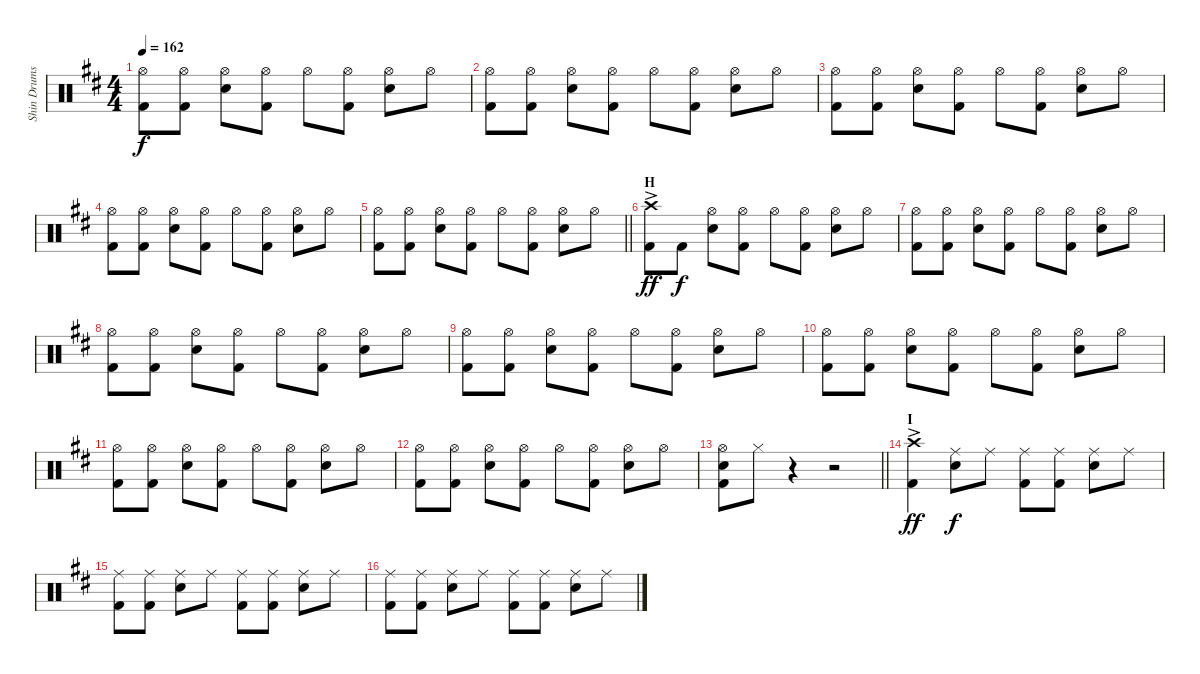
\track ("Shin Drums" "Shin Drums") {instrument percussion}
\staff {score}
\articulation defaults
\ts (4 4)
\tempo 162
\clef neutral
\ks d
("Hi-Hat (open)" "Kick (hit) 2").8{dy f} ("Hi-Hat (open)" "Kick (hit) 2").8 ("Hi-Hat (open)" "Snare (hit) 2").8 ("Hi-Hat (open)" "Kick (hit) 2").8 "Hi-Hat (open)".8 ("Hi-Hat (open)" "Kick (hit) 2").8 ("Hi-Hat (open)" "Snare (hit) 2").8 "Hi-Hat (open)".8 |
("Hi-Hat (open)" "Kick (hit) 2").8 ("Hi-Hat (open)" "Kick (hit) 2").8 ("Hi-Hat (open)" "Snare (hit) 2").8 ("Hi-Hat (open)" "Kick (hit) 2").8 "Hi-Hat (open)".8 ("Hi-Hat (open)" "Kick (hit) 2").8 ("Hi-Hat (open)" "Snare (hit) 2").8 "Hi-Hat (open)".8 |
("Hi-Hat (open)" "Kick (hit) 2").8 ("Hi-Hat (open)" "Kick (hit) 2").8 ("Hi-Hat (open)" "Snare (hit) 2").8 ("Hi-Hat (open)" "Kick (hit) 2").8 "Hi-Hat (open)".8 ("Hi-Hat (open)" "Kick (hit) 2").8 ("Hi-Hat (open)" "Snare (hit) 2").8 "Hi-Hat (open)".8 |
("Hi-Hat (open)" "Kick (hit) 2").8 ("Hi-Hat (open)" "Kick (hit) 2").8 ("Hi-Hat (open)" "Snare (hit) 2").8 ("Hi-Hat (open)" "Kick (hit) 2").8 "Hi-Hat (open)".8 ("Hi-Hat (open)" "Kick (hit) 2").8 ("Hi-Hat (open)" "Snare (hit) 2").8 "Hi-Hat (open)".8 |
\barLineRight lightlight
("Hi-Hat (open)" "Kick (hit) 2").8 ("Hi-Hat (open)" "Kick (hit) 2").8 ("Hi-Hat (open)" "Snare (hit) 2").8 ("Hi-Hat (open)" "Kick (hit) 2").8 "Hi-Hat (open)".8 ("Hi-Hat (open)" "Kick (hit) 2").8 ("Hi-Hat (open)" "Snare (hit) 2").8 "Hi-Hat (open)".8 |
\section ("" "H")
("Crash high (hit)"{ac} "Kick (hit) 2").8{dy ff} "Kick (hit) 2".8{dy f} ("Hi-Hat (open)" "Snare (hit) 2").8 ("Hi-Hat (open)" "Kick (hit) 2").8 "Hi-Hat (open)".8 ("Hi-Hat (open)" "Kick (hit) 2").8 ("Hi-Hat (open)" "Snare (hit) 2").8 "Hi-Hat (open)".8 |
("Hi-Hat (open)" "Kick (hit) 2").8 ("Hi-Hat (open)" "Kick (hit) 2").8 ("Hi-Hat (open)" "Snare (hit) 2").8 ("Hi-Hat (open)" "Kick (hit) 2").8 "Hi-Hat (open)".8 ("Hi-Hat (open)" "Kick (hit) 2").8 ("Hi-Hat (open)" "Snare (hit) 2").8 "Hi-Hat (open)".8 |
("Hi-Hat (open)" "Kick (hit) 2").8 ("Hi-Hat (open)" "Kick (hit) 2").8 ("Hi-Hat (open)" "Snare (hit) 2").8 ("Hi-Hat (open)" "Kick (hit) 2").8 "Hi-Hat (open)".8 ("Hi-Hat (open)" "Kick (hit) 2").8 ("Hi-Hat (open)" "Snare (hit) 2").8 "Hi-Hat (open)".8 |
("Hi-Hat (open)" "Kick (hit) 2").8 ("Hi-Hat (open)" "Kick (hit) 2").8 ("Hi-Hat (open)" "Snare (hit) 2").8 ("Hi-Hat (open)" "Kick (hit) 2").8 "Hi-Hat (open)".8 ("Hi-Hat (open)" "Kick (hit) 2").8 ("Hi-Hat (open)" "Snare (hit) 2").8 "Hi-Hat (open)".8 |
("Hi-Hat (open)" "Kick (hit) 2").8 ("Hi-Hat (open)" "Kick (hit) 2").8 ("Hi-Hat (open)" "Snare (hit) 2").8 ("Hi-Hat (open)" "Kick (hit) 2").8 "Hi-Hat (open)".8 ("Hi-Hat (open)" "Kick (hit) 2").8 ("Hi-Hat (open)" "Snare (hit) 2").8 "Hi-Hat (open)".8 |
("Hi-Hat (open)" "Kick (hit) 2").8 ("Hi-Hat (open)" "Kick (hit) 2").8 ("Hi-Hat (open)" "Snare (hit) 2").8 ("Hi-Hat (open)" "Kick (hit) 2").8 "Hi-Hat (open)".8 ("Hi-Hat (open)" "Kick (hit) 2").8 ("Hi-Hat (open)" "Snare (hit) 2").8 "Hi-Hat (open)".8 |
("Hi-Hat (open)" "Kick (hit) 2").8 ("Hi-Hat (open)" "Kick (hit) 2").8 ("Hi-Hat (open)" "Snare (hit) 2").8 ("Hi-Hat (open)" "Kick (hit) 2").8 "Hi-Hat (open)".8 ("Hi-Hat (open)" "Kick (hit) 2").8 ("Hi-Hat (open)" "Snare (hit) 2").8 "Hi-Hat (open)".8 |
\barLineRight lightlight
("Hi-Hat (open)" "Snare (hit) 2" "Kick (hit) 2").8 "Hi-Hat (closed)".8 r.4 r.2 |
\section ("" "I")
("Crash high (hit)"{ac} "Kick (hit) 2").4{dy ff} ("Ride (middle)" "Snare (hit) 2").8{dy f} "Ride (middle)".8 ("Ride (middle)" "Kick (hit) 2").8 ("Ride (middle)" "Kick (hit) 2").8 ("Ride (middle)" "Snare (hit) 2").8 "Ride (middle)".8 |
("Ride (middle)" "Kick (hit) 2").8 ("Ride (middle)" "Kick (hit) 2").8 ("Ride (middle)" "Snare (hit) 2").8 "Ride (middle)".8 ("Ride (middle)" "Kick (hit) 2").8 ("Ride (middle)" "Kick (hit) 2").8 ("Ride (middle)" "Snare (hit) 2").8 "Ride (middle)".8 |
("Ride (middle)" "Kick (hit) 2").8 ("Ride (middle)" "Kick (hit) 2").8 ("Ride (middle)" "Snare (hit) 2").8 "Ride (middle)".8 ("Ride (middle)" "Kick (hit) 2").8 ("Ride (middle)" "Kick (hit) 2").8 ("Ride (middle)" "Snare (hit) 2").8 "Ride (middle)".8
